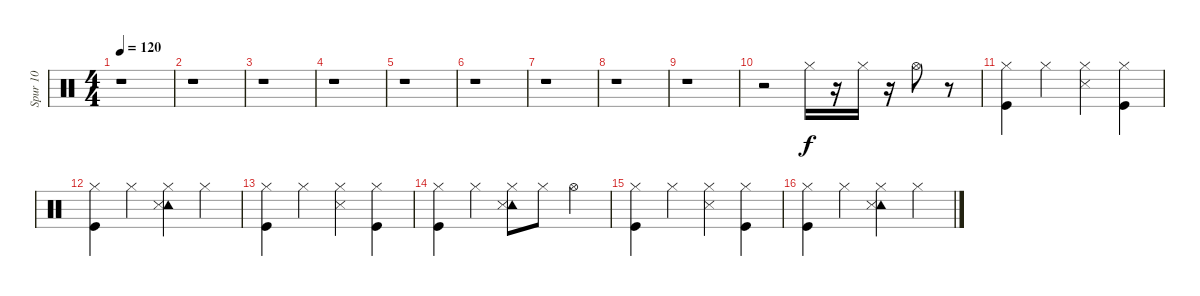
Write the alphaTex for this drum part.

\track ("Spur 10" "Spur 10") {instrument percussion}
\staff {score}
\articulation defaults
\ts (4 4)
\tempo 120
\clef neutral
\ks c
r.1{dy f} |
r.1 |
r.1 |
r.1 |
r.1 |
r.1 |
r.1 |
r.1 |
r.1 |
r.2 "Hi-Hat (closed)".16 r.16 "Hi-Hat (closed)".16 r.16 "Hi-Hat (open)".8 r.8 |
("Kick (hit)" "Hi-Hat (closed)").4 "Hi-Hat (closed)".4 ("Snare (side stick) 3" "Hi-Hat (closed)").4 ("Kick (hit)" "Hi-Hat (closed)").4 |
("Hi-Hat (closed)" "Kick (hit)").4 "Hi-Hat (closed)".4 ("Tambourine (hit)" "Snare (side stick) 3" "Hi-Hat (closed)").4 "Hi-Hat (closed)".4 |
("Kick (hit)" "Hi-Hat (closed)").4 "Hi-Hat (closed)".4 ("Snare (side stick) 3" "Hi-Hat (closed)").4 ("Kick (hit)" "Hi-Hat (closed)").4 |
("Hi-Hat (closed)" "Kick (hit)").4 "Hi-Hat (closed)".4 ("Tambourine (hit)" "Snare (side stick) 3" "Hi-Hat (closed)").8 "Hi-Hat (closed)".8 "Hi-Hat (open)".4 |
("Kick (hit)" "Hi-Hat (closed)").4 "Hi-Hat (closed)".4 ("Snare (side stick) 3" "Hi-Hat (closed)").4 ("Kick (hit)" "Hi-Hat (closed)").4 |
("Hi-Hat (closed)" "Kick (hit)").4 "Hi-Hat (closed)".4 ("Tambourine (hit)" "Snare (side stick) 3" "Hi-Hat (closed)").4 "Hi-Hat (closed)".4
